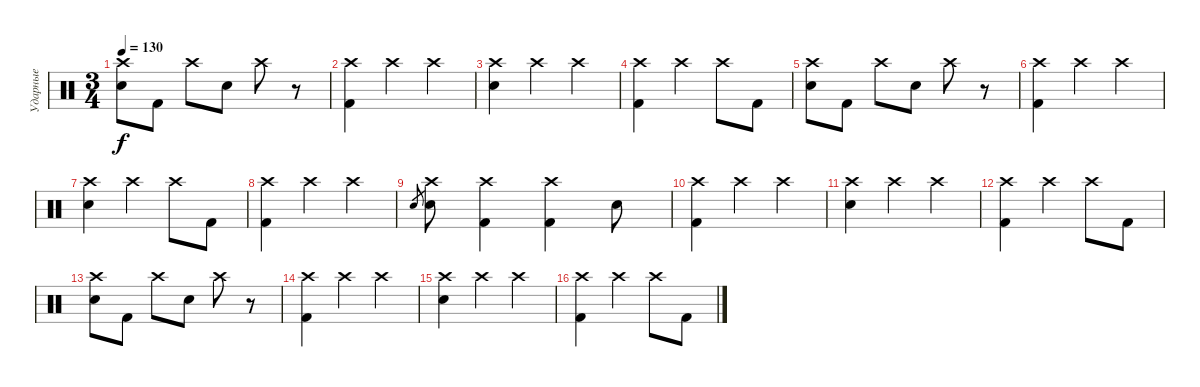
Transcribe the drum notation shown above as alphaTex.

\track ("Ударные" "Ударные") {instrument percussion}
\staff {score}
\articulation defaults
\ts (3 4)
\tempo 130
\clef neutral
\ks c
("Crash high (hit)" "Electric Snare (hit)").8{dy f} "Kick (hit) 2".8 "Crash high (hit)".8 "Electric Snare (hit)".8 "Crash high (hit)".8 r.8 |
("Crash high (hit)" "Kick (hit) 2").4 "Crash high (hit)".4 "Crash high (hit)".4 |
("Crash high (hit)" "Electric Snare (hit)").4 "Crash high (hit)".4 "Crash high (hit)".4 |
("Crash high (hit)" "Kick (hit) 2").4 "Crash high (hit)".4 "Crash high (hit)".8 "Kick (hit) 2".8 |
("Crash high (hit)" "Electric Snare (hit)").8 "Kick (hit) 2".8 "Crash high (hit)".8 "Electric Snare (hit)".8 "Crash high (hit)".8 r.8 |
("Crash high (hit)" "Kick (hit) 2").4 "Crash high (hit)".4 "Crash high (hit)".4 |
("Crash high (hit)" "Electric Snare (hit)").4 "Crash high (hit)".4 "Crash high (hit)".8 "Kick (hit) 2".8 |
("Crash high (hit)" "Kick (hit) 2").4 "Crash high (hit)".4 "Crash high (hit)".4 |
"Electric Snare (hit)".8{gr} ("Crash high (hit)" "Electric Snare (hit)").8 ("Crash high (hit)" "Kick (hit) 2").4 ("Crash high (hit)" "Kick (hit) 2").4 "Electric Snare (hit)".8 |
("Crash high (hit)" "Kick (hit) 2").4 "Crash high (hit)".4 "Crash high (hit)".4 |
("Crash high (hit)" "Electric Snare (hit)").4 "Crash high (hit)".4 "Crash high (hit)".4 |
("Crash high (hit)" "Kick (hit) 2").4 "Crash high (hit)".4 "Crash high (hit)".8 "Kick (hit) 2".8 |
("Crash high (hit)" "Electric Snare (hit)").8 "Kick (hit) 2".8 "Crash high (hit)".8 "Electric Snare (hit)".8 "Crash high (hit)".8 r.8 |
("Crash high (hit)" "Kick (hit) 2").4 "Crash high (hit)".4 "Crash high (hit)".4 |
("Crash high (hit)" "Electric Snare (hit)").4 "Crash high (hit)".4 "Crash high (hit)".4 |
("Crash high (hit)" "Kick (hit) 2").4 "Crash high (hit)".4 "Crash high (hit)".8 "Kick (hit) 2".8
